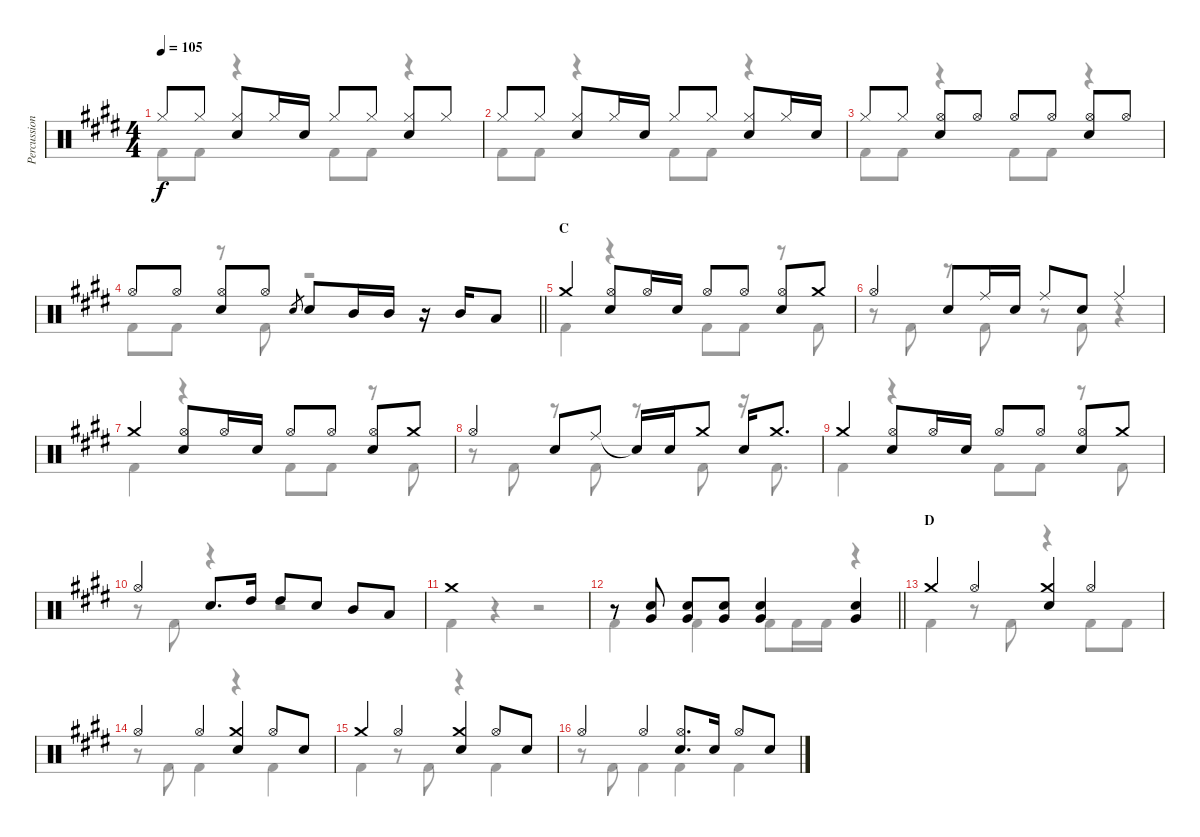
\track ("Percussion" "Percussion") {instrument percussion}
\staff {score}
\articulation defaults
\voice
\ts (4 4)
\tempo 105
\clef neutral
\ks e "Hi-Hat (closed)".8{dy f} "Hi-Hat (closed)".8
("Hi-Hat (closed)" "Snare (hit) 2").8 "Hi-Hat (closed)".16 "Snare (hit) 2".16 "Hi-Hat (closed)".8 "Hi-Hat (closed)".8 ("Hi-Hat (closed)" "Snare (hit) 2").8 "Hi-Hat (closed)".8 |
"Hi-Hat (closed)".8 "Hi-Hat (closed)".8 ("Hi-Hat (closed)" "Snare (hit) 2").8 "Hi-Hat (closed)".16 "Snare (hit) 2".16 "Hi-Hat (closed)".8 "Hi-Hat (closed)".8 ("Hi-Hat (closed)" "Snare (hit) 2").8 "Hi-Hat (closed)".16 "Snare (hit) 2".16 |
"Hi-Hat (closed)".8 "Hi-Hat (closed)".8 ("Hi-Hat (open)" "Snare (hit) 2").8 "Hi-Hat (open)".8 "Hi-Hat (open)".8 "Hi-Hat (open)".8 ("Hi-Hat (open)" "Snare (hit) 2").8 "Hi-Hat (open)".8 |
\barLineRight lightlight "Hi-Hat (open)".8 "Hi-Hat (open)".8
("Hi-Hat (open)" "Snare (hit) 2").8 "Hi-Hat (open)".8 "Snare (hit) 2".8{gr} "Snare (hit) 2".8 "Mid Tom (hit)".16 "Mid Tom (hit)".16 r.16 "Mid Tom (hit)".16 "Low Tom (hit)".8 |
\section ("" "C")
"Crash medium (hit)".4 ("Hi-Hat (open)" "Snare (hit) 2").8 "Hi-Hat (open)".16 "Snare (hit) 2".16 "Hi-Hat (open)".8 "Hi-Hat (open)".8 ("Hi-Hat (open)" "Snare (hit) 2").8 "Crash medium (hit)".8 |
"Hi-Hat (open)".4 "Snare (hit) 2".8 "Ride (middle)".16 "Snare (hit) 2".16 "Ride (middle)".8 "Snare (hit) 2".8 "Ride (middle)".4 |
"Crash medium (hit)".4 ("Hi-Hat (open)" "Snare (hit) 2").8 "Hi-Hat (open)".16 "Snare (hit) 2".16 "Hi-Hat (open)".8 "Hi-Hat (open)".8 ("Hi-Hat (open)" "Snare (hit) 2").8 "Crash medium (hit)".8 |
"Hi-Hat (open)".4 "Snare (hit) 2".8 "Ride (middle)".8 "Snare (hit)"{t}.16 "Snare (hit) 2".16 "Crash medium (hit)".8 "Snare (hit) 2".16 "Crash medium (hit)".8{d} |
"Crash medium (hit)".4 ("Hi-Hat (open)" "Snare (hit) 2").8 "Hi-Hat (open)".16 "Snare (hit) 2".16 "Hi-Hat (open)".8 "Hi-Hat (open)".8 ("Hi-Hat (open)" "Snare (hit) 2").8 "Crash medium (hit)".8 |
"Hi-Hat (open)".4 "Snare (hit) 2".8{d} "High Tom (hit)".16 "High Tom (hit)".8 "Snare (hit) 2".8 "Mid Tom (hit)".8 "Low Tom (hit)".8 |
"Crash medium (hit)".1 |
\barLineRight lightlight
r.8 ("Snare (hit) 2" "Very Low Tom (hit)").8 ("Snare (hit) 2" "Very Low Tom (hit)").8 ("Snare (hit) 2" "Very Low Tom (hit)").8 ("Snare (hit) 2" "Very Low Tom (hit)").4 ("Snare (hit) 2" "Very Low Tom (hit)").4 |
\section ("" "D")
"Crash medium (hit)".4 "Hi-Hat (open)".4 ("Crash medium (hit)" "Snare (hit) 2").4 "Hi-Hat (open)".4 |
"Hi-Hat (open)".4 "Hi-Hat (open)".4 ("Crash medium (hit)" "Snare (hit) 2").4 "Hi-Hat (open)".8 "Snare (hit) 2".8 |
"Crash medium (hit)".4 "Hi-Hat (open)".4 ("Crash medium (hit)" "Snare (hit) 2").4 "Hi-Hat (open)".8 "Snare (hit) 2".8 |
"Hi-Hat (open)".4 "Hi-Hat (open)".4 ("Hi-Hat (open)" "Snare (hit) 2").8{d} "Snare (hit) 2".16 "Hi-Hat (open)".8 "Snare (hit) 2".8
\voice
\clef neutral
\ottava regular
\simile none
\ks e "Kick (hit) 2".8{dy f} "Kick (hit) 2".8
r.4 "Kick (hit) 2".8 "Kick (hit) 2".8 r.4 |
"Kick (hit) 2".8 "Kick (hit) 2".8 r.4 "Kick (hit) 2".8 "Kick (hit) 2".8 r.4 |
"Kick (hit) 2".8 "Kick (hit) 2".8 r.4 "Kick (hit) 2".8 "Kick (hit) 2".8 r.4 |
\barLineRight lightlight "Kick (hit) 2".8 "Kick (hit) 2".8
r.8 "Kick (hit) 2".8 r.2 |
"Kick (hit) 2".4 r.4 "Kick (hit) 2".8 "Kick (hit) 2".8 r.8 "Kick (hit) 2".8 |
r.8 "Kick (hit) 2".8 r.8 "Kick (hit) 2".8 r.8 "Kick (hit) 2".8 r.4 |
"Kick (hit) 2".4 r.4 "Kick (hit) 2".8 "Kick (hit) 2".8 r.8 "Kick (hit) 2".8 |
r.8 "Kick (hit) 2".8 r.8 "Kick (hit) 2".8 r.8 "Kick (hit) 2".8 r.16 "Kick (hit) 2".8{d} |
"Kick (hit) 2".4 r.4 "Kick (hit) 2".8 "Kick (hit) 2".8 r.8 "Kick (hit) 2".8 |
r.8 "Kick (hit) 2".8 r.4 r.2 |
"Kick (hit) 2".4 r.4 r.2 |
\barLineRight lightlight "Kick (hit) 2".4 "Kick (hit) 2".4 "Kick (hit) 2".8 "Kick (hit) 2".16 "Kick (hit) 2".16
r.4 |
"Kick (hit) 2".4 r.8 "Kick (hit) 2".8 r.4 "Kick (hit) 2".8 "Kick (hit) 2".8 |
r.8 "Kick (hit) 2".8 "Kick (hit) 2".4 r.4 "Kick (hit) 2".4 |
"Kick (hit) 2".4 r.8 "Kick (hit) 2".8 r.4 "Kick (hit) 2".4 |
r.8 "Kick (hit) 2".8 "Kick (hit) 2".4 "Kick (hit) 2".4 "Kick (hit) 2".4
